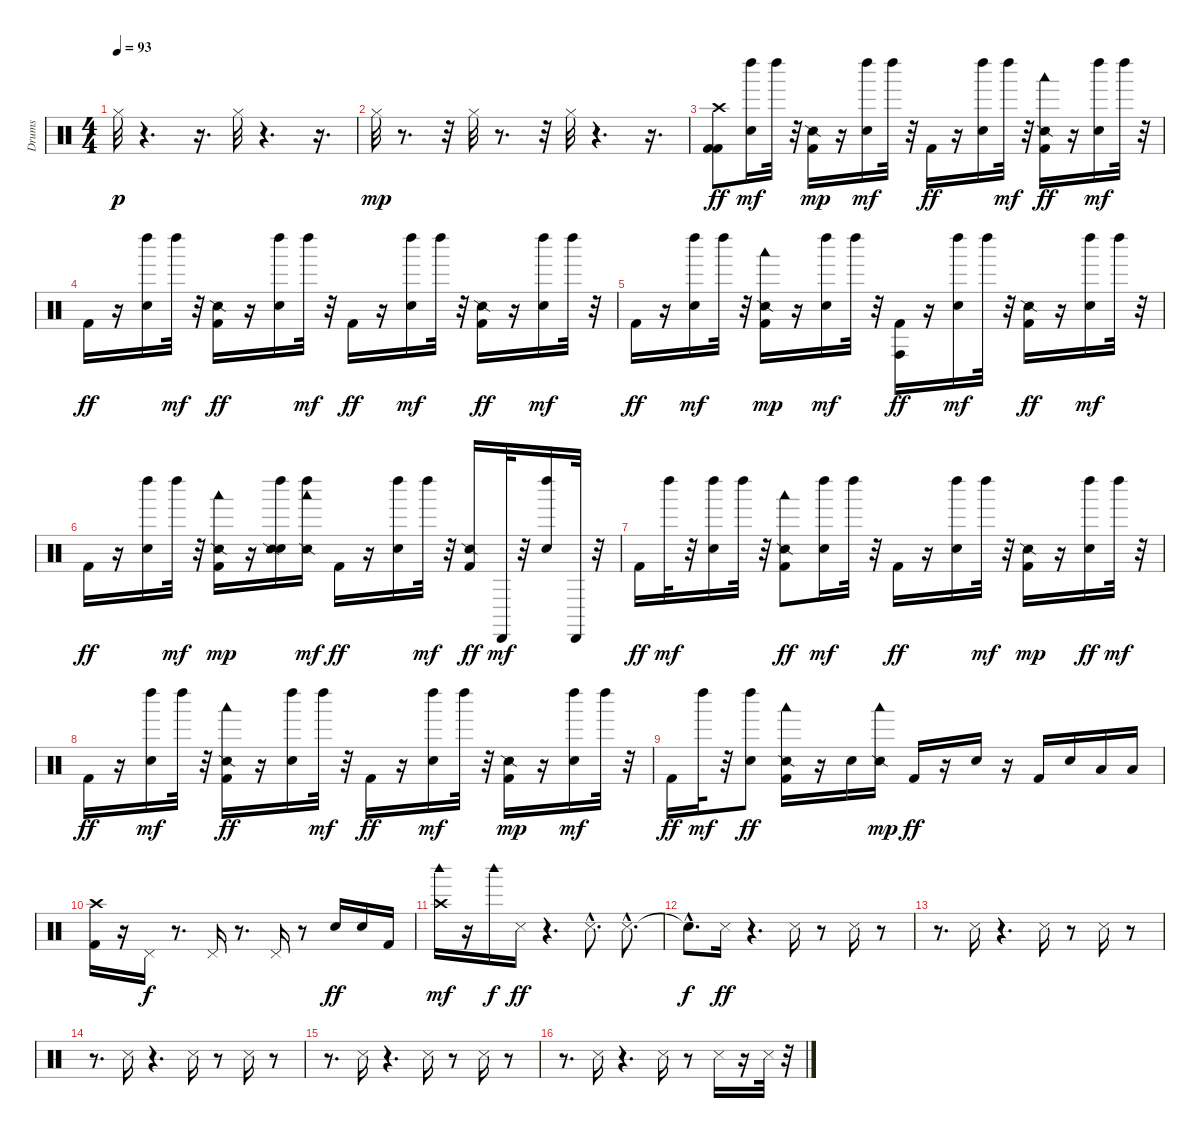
\track ("Drums" "Drums") {instrument percussion}
\staff {score}
\articulation defaults
\ts (4 4)
\tempo 93
\clef neutral
\ks c "Hi-Hat (closed)".32{dy p}
r.4{d} r.16{d} "Hi-Hat (closed)".32 r.4{d} r.16{d} |
"Hi-Hat (closed)".32{dy mp} r.8{d} r.32 "Hi-Hat (closed)".32 r.8{d} r.32 "Hi-Hat (closed)".32 r.4{d} r.16{d} |
("Crash high (hit)" "Kick (hit) 2" "Kick (hit) 2").8{dy ff} ("Snare (hit) 2" "Left Maraca (hit)").16{dy mf} "Left Maraca (hit)".32 r.32 ("Kick (hit) 2" "Snare (side stick) 2").16{dy mp} r.16 ("Snare (hit) 2" "Left Maraca (hit)").16{dy mf} "Left Maraca (hit)".32 r.32 "Kick (hit) 2".16{dy ff} r.16 ("Left Maraca (hit)" "Snare (hit) 2").16 "Left Maraca (hit)".32{dy mf} r.32 ("Snare (side stick) 2" "Kick (hit) 2" "Woodblock low (hit)").16{dy ff} r.16 ("Snare (hit) 2" "Left Maraca (hit)").16{dy mf} "Left Maraca (hit)".32 r.32 |
"Kick (hit) 2".16{dy ff} r.16 ("Left Maraca (hit)" "Snare (hit) 2").16 "Left Maraca (hit)".32{dy mf} r.32 ("Snare (side stick) 2" "Kick (hit) 2").16{dy ff} r.16 ("Left Maraca (hit)" "Snare (hit) 2").16 "Left Maraca (hit)".32{dy mf} r.32 "Kick (hit) 2".16{dy ff} r.16 ("Snare (hit) 2" "Left Maraca (hit)").16{dy mf} "Left Maraca (hit)".32 r.32 ("Snare (side stick) 2" "Kick (hit) 2").16{dy ff} r.16 ("Snare (hit) 2" "Left Maraca (hit)").16{dy mf} "Left Maraca (hit)".32 r.32 |
"Kick (hit) 2".16{dy ff} r.16 ("Snare (hit) 2" "Left Maraca (hit)").16{dy mf} "Left Maraca (hit)".32 r.32 ("Kick (hit) 2" "Woodblock low (hit)" "Snare (side stick) 2").16{dy mp} r.16 ("Snare (hit) 2" "Left Maraca (hit)").16{dy mf} "Left Maraca (hit)".32 r.32 ("Conga high (hit)" "Kick (hit) 2").16{dy ff} r.16 ("Snare (hit) 2" "Left Maraca (hit)").16{dy mf} "Left Maraca (hit)".32 r.32 ("Snare (side stick) 2" "Kick (hit) 2").16{dy ff} r.16 ("Snare (hit) 2" "Left Maraca (hit)").16{dy mf} "Left Maraca (hit)".32 r.32 |
"Kick (hit) 2".16{dy ff} r.16 ("Left Maraca (hit)" "Snare (hit) 2").16 "Left Maraca (hit)".32{dy mf} r.32 ("Kick (hit) 2" "Snare (side stick) 2" "Woodblock low (hit)").16{dy mp} r.16 ("Snare (hit) 2" "Left Maraca (hit)" "Snare (side stick) 2").16 ("Snare (side stick) 2" "Left Maraca (hit)" "Woodblock low (hit)").16{dy mf} "Kick (hit) 2".16{dy ff} r.16 ("Left Maraca (hit)" "Snare (hit) 2").16 "Left Maraca (hit)".32{dy mf} r.32 ("Snare (side stick) 2" "Kick (hit) 2").16{dy ff} "Cabasa (hit)".32{dy mf} r.32 ("Snare (hit) 2" "Left Maraca (hit)").16 "Cabasa (hit)".32 r.32 |
"Kick (hit) 2".16{dy ff} "Left Maraca (hit)".32{dy mf} r.32 ("Snare (hit) 2" "Left Maraca (hit)").16 "Left Maraca (hit)".32 r.32 ("Woodblock low (hit)" "Snare (side stick) 2" "Kick (hit) 2").8{dy ff} ("Snare (hit) 2" "Left Maraca (hit)").16{dy mf} "Left Maraca (hit)".32 r.32 "Kick (hit) 2".16{dy ff} r.16 ("Left Maraca (hit)" "Snare (hit) 2").16 "Left Maraca (hit)".32{dy mf} r.32 ("Kick (hit) 2" "Snare (side stick) 2").16{dy mp} r.16 ("Left Maraca (hit)" "Snare (hit) 2").16{dy ff} "Left Maraca (hit)".32{dy mf} r.32 |
"Kick (hit) 2".16{dy ff} r.16 ("Snare (hit) 2" "Left Maraca (hit)").16{dy mf} "Left Maraca (hit)".32 r.32 ("Snare (side stick) 2" "Kick (hit) 2" "Woodblock low (hit)").16{dy ff} r.16 ("Left Maraca (hit)" "Snare (hit) 2").16 "Left Maraca (hit)".32{dy mf} r.32 "Kick (hit) 2".16{dy ff} r.16 ("Snare (hit) 2" "Left Maraca (hit)").16{dy mf} "Left Maraca (hit)".32 r.32 ("Kick (hit) 2" "Snare (side stick) 2").16{dy mp} r.16 ("Snare (hit) 2" "Left Maraca (hit)").16{dy mf} "Left Maraca (hit)".32 r.32 |
"Kick (hit) 2".16{dy ff} "Left Maraca (hit)".32{dy mf} r.32 ("Left Maraca (hit)" "Snare (hit) 2").8{dy ff} ("Snare (side stick) 2" "Kick (hit) 2" "Woodblock low (hit)").16 r.16 "Snare (hit) 2".16 ("Woodblock low (hit)" "Snare (side stick) 2").16{dy mp} "Kick (hit) 2".16{dy ff} r.16 "Snare (hit) 2".16 r.16 "Kick (hit) 2".16 "Snare (hit) 2".16 "Low Tom (hit)".16 "Low Floor Tom (hit)".16 |
("Kick (hit) 2" "Crash high (hit)").16 r.16 "Pedal Hi-Hat (hit)".16{dy f} r.8{d} "Pedal Hi-Hat (hit)".16 r.8{d} "Pedal Hi-Hat (hit)".16 r.8 "Snare (hit) 2".16{dy ff} "Snare (hit) 2".16 "Kick (hit) 2".16 |
("Woodblock high (hit)" "Crash high (hit)").16{dy mf} r.16 "Woodblock high (hit)".16{dy f} "Metronome (hit)".16{dy ff} r.4{d} "Metronome (hit)"{hac}.8{d} "Metronome (hit)"{hac}.8{d} |
"Snare (hit)"{hac t}.8{d dy f} "Metronome (hit)".16{dy ff} r.4{d} "Metronome (hit)".16 r.8 "Metronome (hit)".16 r.8 |
r.8{d} "Metronome (hit)".16 r.4{d} "Metronome (hit)".16 r.8 "Metronome (hit)".16 r.8 |
r.8{d} "Metronome (hit)".16 r.4{d} "Metronome (hit)".16 r.8 "Metronome (hit)".16 r.8 |
r.8{d} "Metronome (hit)".16 r.4{d} "Metronome (hit)".16 r.8 "Metronome (hit)".16 r.8 |
r.8{d} "Metronome (hit)".16 r.4{d} "Metronome (hit)".16 r.8 "Metronome (hit)".16 r.16 "Metronome (hit)".32 r.32
